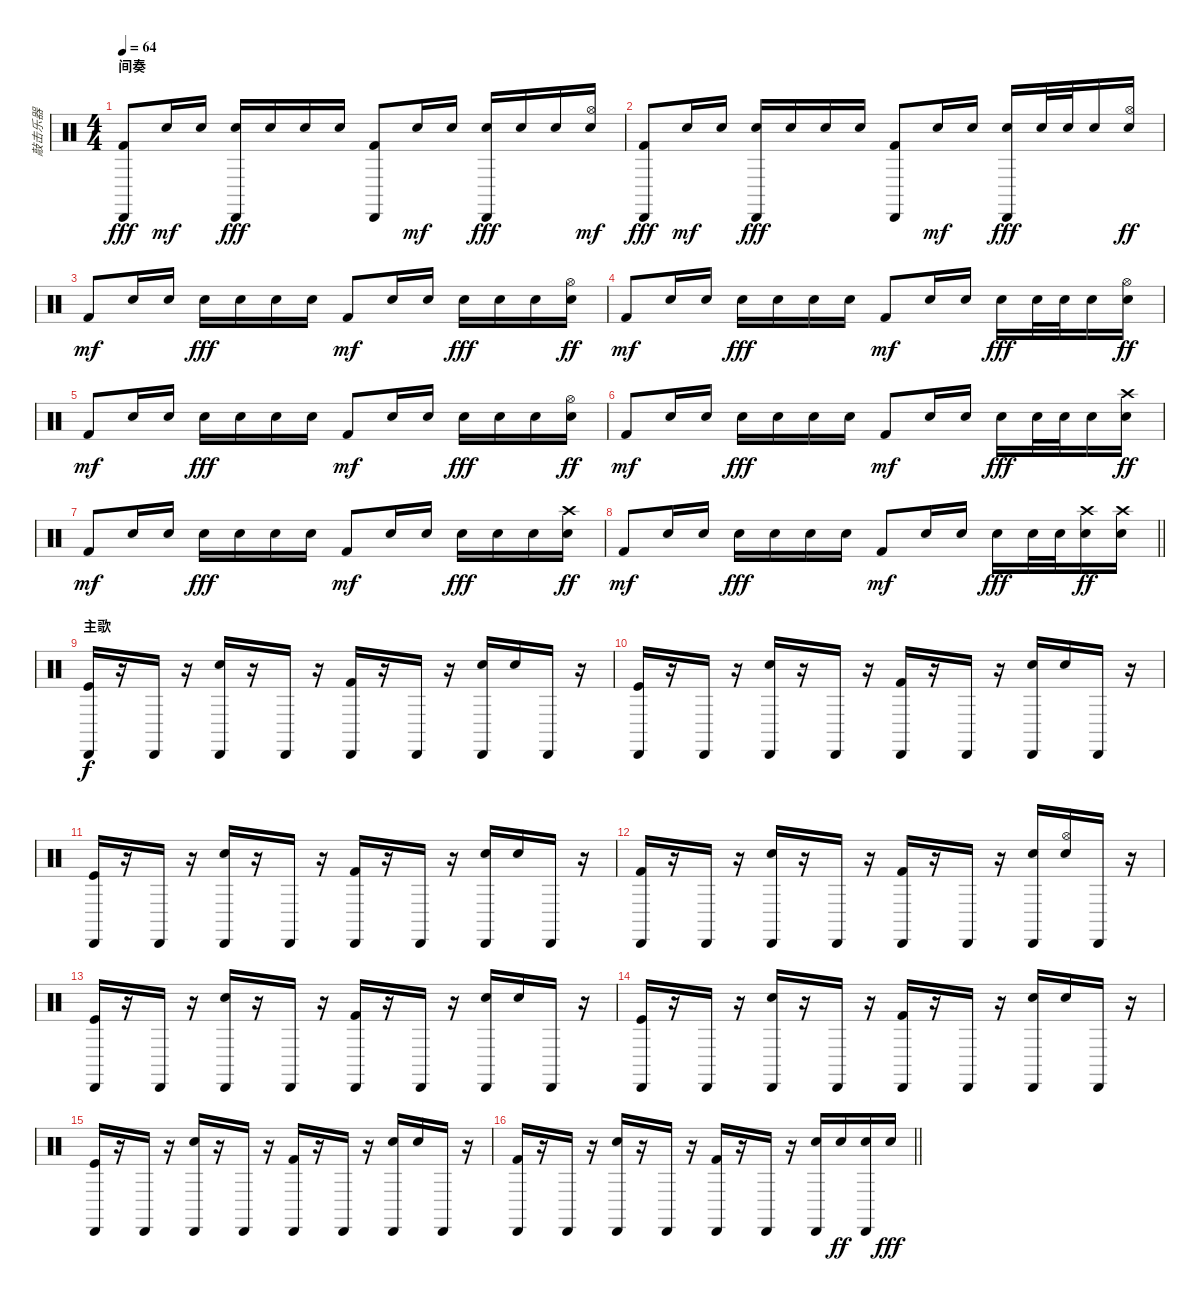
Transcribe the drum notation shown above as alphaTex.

\track ("敲击乐器" "敲击乐器") {instrument percussion}
\staff {score}
\articulation defaults
\ts (4 4)
\section ("" "间奏")
\tempo 64
\clef neutral
\ks c
("Kick (hit) 2" "Cabasa (hit)").8{dy fff} "Snare (hit) 2".16{dy mf} "Snare (hit) 2".16 ("Electric Snare (hit)" "Cabasa (hit)").16{dy fff} "Snare (hit) 2".16 "Electric Snare (hit)".16 "Snare (hit) 2".16 ("Kick (hit) 2" "Cabasa (hit)").8 "Snare (hit) 2".16{dy mf} "Snare (hit) 2".16 ("Electric Snare (hit)" "Cabasa (hit)").16{dy fff} "Snare (hit) 2".16 "Electric Snare (hit)".16 ("Snare (hit) 2" "Hi-Hat (open)").16{dy mf} |
("Kick (hit) 2" "Cabasa (hit)").8{dy fff} "Snare (hit) 2".16{dy mf} "Snare (hit) 2".16 ("Electric Snare (hit)" "Cabasa (hit)").16{dy fff} "Snare (hit) 2".16 "Electric Snare (hit)".16 "Snare (hit) 2".16 ("Kick (hit) 2" "Cabasa (hit)").8 "Snare (hit) 2".16{dy mf} "Snare (hit) 2".16 ("Electric Snare (hit)" "Cabasa (hit)").16{dy fff} "Snare (hit) 2".32 "Electric Snare (hit)".32 "Snare (hit) 2".16 ("Snare (hit) 2" "Hi-Hat (open)").16{dy ff} |
"Kick (hit) 2".8{dy mf} "Snare (hit) 2".16 "Snare (hit) 2".16 "Electric Snare (hit)".16{dy fff} "Snare (hit) 2".16 "Electric Snare (hit)".16 "Snare (hit) 2".16 "Kick (hit) 2".8{dy mf} "Snare (hit) 2".16 "Snare (hit) 2".16 "Electric Snare (hit)".16{dy fff} "Snare (hit) 2".16 "Electric Snare (hit)".16 ("Snare (hit) 2" "Hi-Hat (open)").16{dy ff} |
"Kick (hit) 2".8{dy mf} "Snare (hit) 2".16 "Snare (hit) 2".16 "Electric Snare (hit)".16{dy fff} "Snare (hit) 2".16 "Electric Snare (hit)".16 "Snare (hit) 2".16 "Kick (hit) 2".8{dy mf} "Snare (hit) 2".16 "Snare (hit) 2".16 "Electric Snare (hit)".16{dy fff} "Snare (hit) 2".32 "Electric Snare (hit)".32 "Snare (hit) 2".16 ("Snare (hit) 2" "Hi-Hat (open)").16{dy ff} |
"Kick (hit) 2".8{dy mf} "Snare (hit) 2".16 "Snare (hit) 2".16 "Electric Snare (hit)".16{dy fff} "Snare (hit) 2".16 "Electric Snare (hit)".16 "Snare (hit) 2".16 "Kick (hit) 2".8{dy mf} "Snare (hit) 2".16 "Snare (hit) 2".16 "Electric Snare (hit)".16{dy fff} "Snare (hit) 2".16 "Electric Snare (hit)".16 ("Snare (hit) 2" "Hi-Hat (open)").16{dy ff} |
"Kick (hit) 2".8{dy mf} "Snare (hit) 2".16 "Snare (hit) 2".16 "Electric Snare (hit)".16{dy fff} "Snare (hit) 2".16 "Electric Snare (hit)".16 "Snare (hit) 2".16 "Kick (hit) 2".8{dy mf} "Snare (hit) 2".16 "Snare (hit) 2".16 "Electric Snare (hit)".16{dy fff} "Snare (hit) 2".32 "Electric Snare (hit)".32 "Snare (hit) 2".16 ("Snare (hit) 2" "Crash high (hit)").16{dy ff} |
"Kick (hit) 2".8{dy mf} "Snare (hit) 2".16 "Snare (hit) 2".16 "Electric Snare (hit)".16{dy fff} "Snare (hit) 2".16 "Electric Snare (hit)".16 "Snare (hit) 2".16 "Kick (hit) 2".8{dy mf} "Snare (hit) 2".16 "Snare (hit) 2".16 "Electric Snare (hit)".16{dy fff} "Snare (hit) 2".16 "Electric Snare (hit)".16 ("Snare (hit) 2" "Crash high (hit)").16{dy ff} |
\barLineRight lightlight "Kick (hit) 2".8{dy mf} "Snare (hit) 2".16 "Snare (hit) 2".16 "Electric Snare (hit)".16{dy fff} "Snare (hit) 2".16 "Electric Snare (hit)".16 "Snare (hit) 2".16 "Kick (hit) 2".8{dy mf} "Snare (hit) 2".16 "Snare (hit) 2".16 "Electric Snare (hit)".16{dy fff} "Snare (hit) 2".32 "Electric Snare (hit)".32
("Snare (hit) 2" "Crash high (hit)").16{dy ff} ("Snare (hit) 2" "Crash high (hit)").16 |
\section ("" "主歌")
("Cabasa (hit)" "Kick (hit)").16{dy f} r.16 "Cabasa (hit)".16 r.16 ("Cabasa (hit)" "Snare (hit) 2").16 r.16 "Cabasa (hit)".16 r.16 ("Cabasa (hit)" "Kick (hit) 2").16 r.16 "Cabasa (hit)".16 r.16 ("Cabasa (hit)" "Snare (hit) 2").16 "Snare (hit) 2".16 "Cabasa (hit)".16 r.16 |
("Cabasa (hit)" "Kick (hit)").16 r.16 "Cabasa (hit)".16 r.16 ("Cabasa (hit)" "Snare (hit) 2").16 r.16 "Cabasa (hit)".16 r.16 ("Cabasa (hit)" "Kick (hit) 2").16 r.16 "Cabasa (hit)".16 r.16 ("Cabasa (hit)" "Snare (hit) 2").16 "Snare (hit) 2".16 "Cabasa (hit)".16 r.16 |
("Cabasa (hit)" "Kick (hit)").16 r.16 "Cabasa (hit)".16 r.16 ("Cabasa (hit)" "Snare (hit) 2").16 r.16 "Cabasa (hit)".16 r.16 ("Cabasa (hit)" "Kick (hit) 2").16 r.16 "Cabasa (hit)".16 r.16 ("Cabasa (hit)" "Snare (hit) 2").16 "Snare (hit) 2".16 "Cabasa (hit)".16 r.16 |
("Cabasa (hit)" "Kick (hit) 2").16 r.16 "Cabasa (hit)".16 r.16 ("Cabasa (hit)" "Snare (hit) 2").16 r.16 "Cabasa (hit)".16 r.16 ("Cabasa (hit)" "Kick (hit) 2").16 r.16 "Cabasa (hit)".16 r.16 ("Cabasa (hit)" "Electric Snare (hit)").16 ("Snare (hit) 2" "Hi-Hat (open)").16 "Cabasa (hit)".16 r.16 |
("Cabasa (hit)" "Kick (hit)").16 r.16 "Cabasa (hit)".16 r.16 ("Cabasa (hit)" "Snare (hit) 2").16 r.16 "Cabasa (hit)".16 r.16 ("Cabasa (hit)" "Kick (hit) 2").16 r.16 "Cabasa (hit)".16 r.16 ("Cabasa (hit)" "Snare (hit) 2").16 "Snare (hit) 2".16 "Cabasa (hit)".16 r.16 |
("Cabasa (hit)" "Kick (hit)").16 r.16 "Cabasa (hit)".16 r.16 ("Cabasa (hit)" "Snare (hit) 2").16 r.16 "Cabasa (hit)".16 r.16 ("Cabasa (hit)" "Kick (hit) 2").16 r.16 "Cabasa (hit)".16 r.16 ("Cabasa (hit)" "Snare (hit) 2").16 "Snare (hit) 2".16 "Cabasa (hit)".16 r.16 |
("Cabasa (hit)" "Kick (hit)").16 r.16 "Cabasa (hit)".16 r.16 ("Cabasa (hit)" "Snare (hit) 2").16 r.16 "Cabasa (hit)".16 r.16 ("Cabasa (hit)" "Kick (hit) 2").16 r.16 "Cabasa (hit)".16 r.16 ("Cabasa (hit)" "Snare (hit) 2").16 "Snare (hit) 2".16 "Cabasa (hit)".16 r.16 |
\barLineRight lightlight
("Cabasa (hit)" "Kick (hit) 2").16 r.16 "Cabasa (hit)".16 r.16 ("Cabasa (hit)" "Snare (hit) 2").16 r.16 "Cabasa (hit)".16 r.16 ("Cabasa (hit)" "Kick (hit) 2").16 r.16 "Cabasa (hit)".16 r.16 ("Cabasa (hit)" "Snare (hit) 2").16 "Snare (hit) 2".16{dy ff} ("Cabasa (hit)" "Snare (hit) 2").16 "Snare (hit) 2".16{dy fff}
